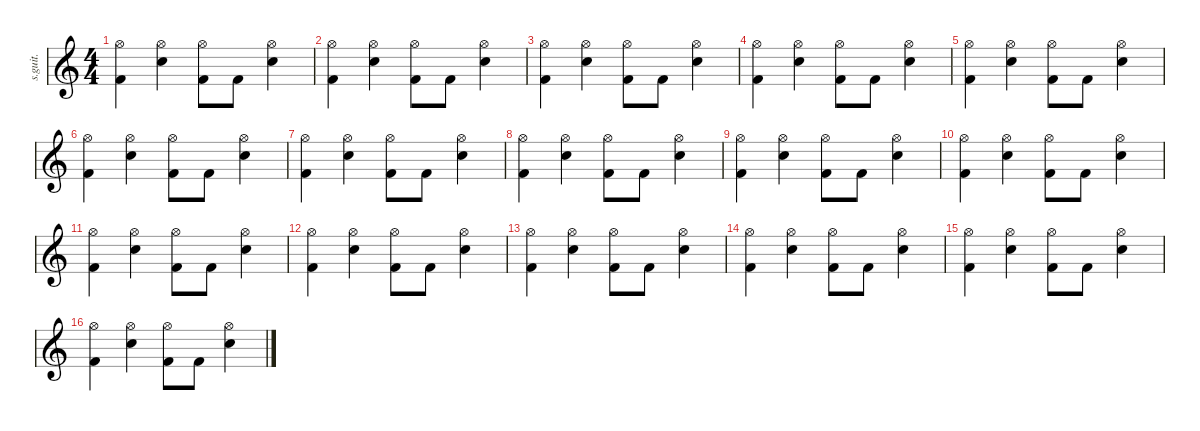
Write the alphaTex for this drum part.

\defaultSystemsLayout 4
\hideDynamics
\bracketExtendMode nobrackets
\track ("" "s.guit.") {instrument percussion}
\staff {score}
\articulation defaults
\ts (4 4)
\tempo (180 hide)
\clef g2
\ks c
("Kick (hit) 2" "Hi-Hat (open)").4{dy f} ("Snare (hit) 2" "Hi-Hat (open)").4 ("Kick (hit) 2" "Hi-Hat (open)").8 "Kick (hit) 2".8 ("Snare (hit) 2" "Hi-Hat (open)").4 |
("Kick (hit) 2" "Hi-Hat (open)").4 ("Snare (hit) 2" "Hi-Hat (open)").4 ("Kick (hit) 2" "Hi-Hat (open)").8 "Kick (hit) 2".8 ("Snare (hit) 2" "Hi-Hat (open)").4 |
("Kick (hit) 2" "Hi-Hat (open)").4 ("Snare (hit) 2" "Hi-Hat (open)").4 ("Kick (hit) 2" "Hi-Hat (open)").8 "Kick (hit) 2".8 ("Snare (hit) 2" "Hi-Hat (open)").4 |
("Kick (hit) 2" "Hi-Hat (open)").4 ("Snare (hit) 2" "Hi-Hat (open)").4 ("Kick (hit) 2" "Hi-Hat (open)").8 "Kick (hit) 2".8 ("Snare (hit) 2" "Hi-Hat (open)").4 |
("Kick (hit) 2" "Hi-Hat (open)").4 ("Snare (hit) 2" "Hi-Hat (open)").4 ("Kick (hit) 2" "Hi-Hat (open)").8 "Kick (hit) 2".8 ("Snare (hit) 2" "Hi-Hat (open)").4 |
("Kick (hit) 2" "Hi-Hat (open)").4 ("Snare (hit) 2" "Hi-Hat (open)").4 ("Kick (hit) 2" "Hi-Hat (open)").8 "Kick (hit) 2".8 ("Snare (hit) 2" "Hi-Hat (open)").4 |
("Kick (hit) 2" "Hi-Hat (open)").4 ("Snare (hit) 2" "Hi-Hat (open)").4 ("Kick (hit) 2" "Hi-Hat (open)").8 "Kick (hit) 2".8 ("Snare (hit) 2" "Hi-Hat (open)").4 |
("Kick (hit) 2" "Hi-Hat (open)").4 ("Snare (hit) 2" "Hi-Hat (open)").4 ("Kick (hit) 2" "Hi-Hat (open)").8 "Kick (hit) 2".8 ("Snare (hit) 2" "Hi-Hat (open)").4 |
("Kick (hit) 2" "Hi-Hat (open)").4 ("Snare (hit) 2" "Hi-Hat (open)").4 ("Kick (hit) 2" "Hi-Hat (open)").8 "Kick (hit) 2".8 ("Snare (hit) 2" "Hi-Hat (open)").4 |
("Kick (hit) 2" "Hi-Hat (open)").4 ("Snare (hit) 2" "Hi-Hat (open)").4 ("Kick (hit) 2" "Hi-Hat (open)").8 "Kick (hit) 2".8 ("Snare (hit) 2" "Hi-Hat (open)").4 |
("Kick (hit) 2" "Hi-Hat (open)").4 ("Snare (hit) 2" "Hi-Hat (open)").4 ("Kick (hit) 2" "Hi-Hat (open)").8 "Kick (hit) 2".8 ("Snare (hit) 2" "Hi-Hat (open)").4 |
("Kick (hit) 2" "Hi-Hat (open)").4 ("Snare (hit) 2" "Hi-Hat (open)").4 ("Kick (hit) 2" "Hi-Hat (open)").8 "Kick (hit) 2".8 ("Snare (hit) 2" "Hi-Hat (open)").4 |
("Kick (hit) 2" "Hi-Hat (open)").4 ("Snare (hit) 2" "Hi-Hat (open)").4 ("Kick (hit) 2" "Hi-Hat (open)").8 "Kick (hit) 2".8 ("Snare (hit) 2" "Hi-Hat (open)").4 |
("Kick (hit) 2" "Hi-Hat (open)").4 ("Snare (hit) 2" "Hi-Hat (open)").4 ("Kick (hit) 2" "Hi-Hat (open)").8 "Kick (hit) 2".8 ("Snare (hit) 2" "Hi-Hat (open)").4 |
("Kick (hit) 2" "Hi-Hat (open)").4 ("Snare (hit) 2" "Hi-Hat (open)").4 ("Kick (hit) 2" "Hi-Hat (open)").8 "Kick (hit) 2".8 ("Snare (hit) 2" "Hi-Hat (open)").4 |
("Kick (hit) 2" "Hi-Hat (open)").4 ("Snare (hit) 2" "Hi-Hat (open)").4 ("Kick (hit) 2" "Hi-Hat (open)").8 "Kick (hit) 2".8 ("Snare (hit) 2" "Hi-Hat (open)").4
